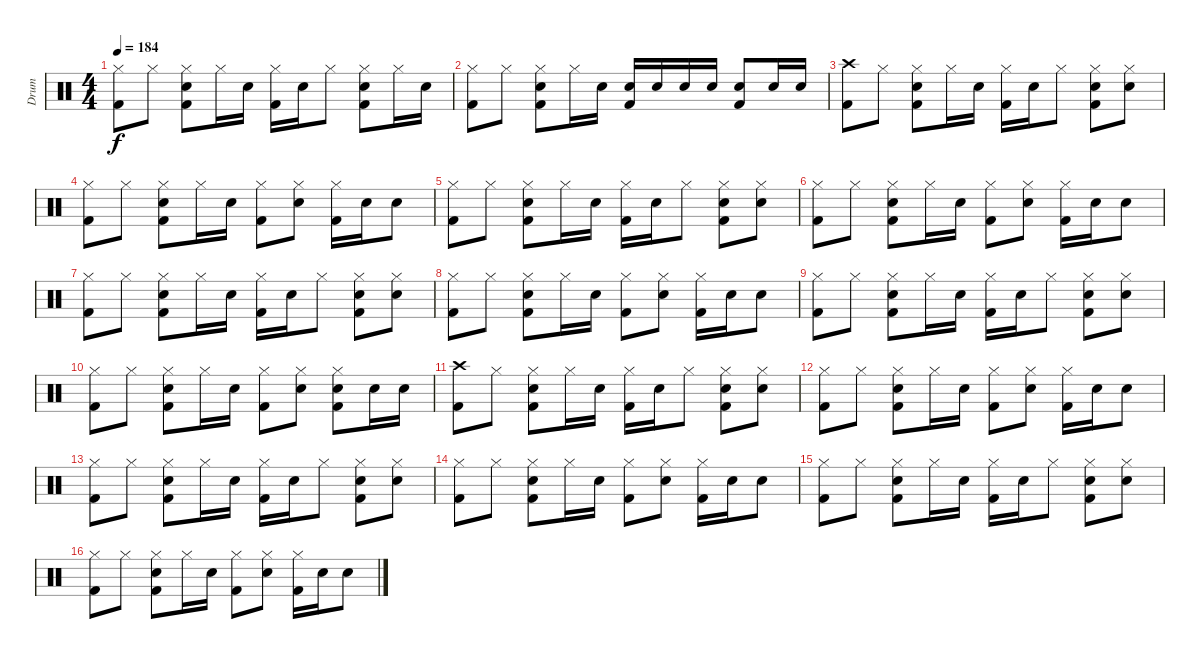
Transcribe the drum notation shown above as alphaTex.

\track ("Drum" "Drum") {instrument percussion}
\staff {score}
\articulation defaults
\ts (4 4)
\tempo 184
\clef neutral
\ks c
("Hi-Hat (closed)" "Kick (hit) 2").8{dy f} "Hi-Hat (closed)".8 ("Hi-Hat (closed)" "Electric Snare (hit)" "Kick (hit) 2").8 "Hi-Hat (closed)".16 "Electric Snare (hit)".16 ("Hi-Hat (closed)" "Kick (hit) 2").16 "Electric Snare (hit)".16 "Hi-Hat (closed)".8 ("Hi-Hat (closed)" "Electric Snare (hit)" "Kick (hit) 2").8 "Hi-Hat (closed)".16 "Electric Snare (hit)".16 |
("Hi-Hat (closed)" "Kick (hit) 2").8 "Hi-Hat (closed)".8 ("Hi-Hat (closed)" "Electric Snare (hit)" "Kick (hit) 2").8 "Hi-Hat (closed)".16 "Electric Snare (hit)".16 ("Electric Snare (hit)" "Kick (hit) 2").16 "Electric Snare (hit)".16 "Electric Snare (hit)".16 "Electric Snare (hit)".16 ("Electric Snare (hit)" "Kick (hit) 2").8 "Electric Snare (hit)".16 "Electric Snare (hit)".16 |
("Crash high (hit)" "Kick (hit) 2").8 "Hi-Hat (closed)".8 ("Hi-Hat (closed)" "Electric Snare (hit)" "Kick (hit) 2").8 "Hi-Hat (closed)".16 "Electric Snare (hit)".16 ("Hi-Hat (closed)" "Kick (hit) 2").16 "Electric Snare (hit)".16 "Hi-Hat (closed)".8 ("Hi-Hat (closed)" "Electric Snare (hit)" "Kick (hit) 2").8 ("Hi-Hat (closed)" "Electric Snare (hit)").8 |
("Hi-Hat (closed)" "Kick (hit) 2").8 "Hi-Hat (closed)".8 ("Hi-Hat (closed)" "Electric Snare (hit)" "Kick (hit) 2").8 "Hi-Hat (closed)".16 "Electric Snare (hit)".16 ("Hi-Hat (closed)" "Kick (hit) 2").8 ("Hi-Hat (closed)" "Electric Snare (hit)").8 ("Hi-Hat (closed)" "Kick (hit) 2").16 "Electric Snare (hit)".16 "Electric Snare (hit)".8 |
("Hi-Hat (closed)" "Kick (hit) 2").8 "Hi-Hat (closed)".8 ("Hi-Hat (closed)" "Electric Snare (hit)" "Kick (hit) 2").8 "Hi-Hat (closed)".16 "Electric Snare (hit)".16 ("Hi-Hat (closed)" "Kick (hit) 2").16 "Electric Snare (hit)".16 "Hi-Hat (closed)".8 ("Hi-Hat (closed)" "Electric Snare (hit)" "Kick (hit) 2").8 ("Hi-Hat (closed)" "Electric Snare (hit)").8 |
("Hi-Hat (closed)" "Kick (hit) 2").8 "Hi-Hat (closed)".8 ("Hi-Hat (closed)" "Electric Snare (hit)" "Kick (hit) 2").8 "Hi-Hat (closed)".16 "Electric Snare (hit)".16 ("Hi-Hat (closed)" "Kick (hit) 2").8 ("Hi-Hat (closed)" "Electric Snare (hit)").8 ("Hi-Hat (closed)" "Kick (hit) 2").16 "Electric Snare (hit)".16 "Electric Snare (hit)".8 |
("Hi-Hat (closed)" "Kick (hit) 2").8 "Hi-Hat (closed)".8 ("Hi-Hat (closed)" "Electric Snare (hit)" "Kick (hit) 2").8 "Hi-Hat (closed)".16 "Electric Snare (hit)".16 ("Hi-Hat (closed)" "Kick (hit) 2").16 "Electric Snare (hit)".16 "Hi-Hat (closed)".8 ("Hi-Hat (closed)" "Electric Snare (hit)" "Kick (hit) 2").8 ("Hi-Hat (closed)" "Electric Snare (hit)").8 |
("Hi-Hat (closed)" "Kick (hit) 2").8 "Hi-Hat (closed)".8 ("Hi-Hat (closed)" "Electric Snare (hit)" "Kick (hit) 2").8 "Hi-Hat (closed)".16 "Electric Snare (hit)".16 ("Hi-Hat (closed)" "Kick (hit) 2").8 ("Hi-Hat (closed)" "Electric Snare (hit)").8 ("Hi-Hat (closed)" "Kick (hit) 2").16 "Electric Snare (hit)".16 "Electric Snare (hit)".8 |
("Hi-Hat (closed)" "Kick (hit) 2").8 "Hi-Hat (closed)".8 ("Hi-Hat (closed)" "Electric Snare (hit)" "Kick (hit) 2").8 "Hi-Hat (closed)".16 "Electric Snare (hit)".16 ("Hi-Hat (closed)" "Kick (hit) 2").16 "Electric Snare (hit)".16 "Hi-Hat (closed)".8 ("Hi-Hat (closed)" "Electric Snare (hit)" "Kick (hit) 2").8 ("Hi-Hat (closed)" "Electric Snare (hit)").8 |
("Hi-Hat (closed)" "Kick (hit) 2").8 "Hi-Hat (closed)".8 ("Hi-Hat (closed)" "Electric Snare (hit)" "Kick (hit) 2").8 "Hi-Hat (closed)".16 "Electric Snare (hit)".16 ("Hi-Hat (closed)" "Kick (hit) 2").8 ("Hi-Hat (closed)" "Electric Snare (hit)").8 ("Hi-Hat (closed)" "Electric Snare (hit)" "Kick (hit) 2").8 "Electric Snare (hit)".16 "Electric Snare (hit)".16 |
("Crash high (hit)" "Kick (hit) 2").8 "Hi-Hat (closed)".8 ("Hi-Hat (closed)" "Electric Snare (hit)" "Kick (hit) 2").8 "Hi-Hat (closed)".16 "Electric Snare (hit)".16 ("Hi-Hat (closed)" "Kick (hit) 2").16 "Electric Snare (hit)".16 "Hi-Hat (closed)".8 ("Hi-Hat (closed)" "Electric Snare (hit)" "Kick (hit) 2").8 ("Hi-Hat (closed)" "Electric Snare (hit)").8 |
("Hi-Hat (closed)" "Kick (hit) 2").8 "Hi-Hat (closed)".8 ("Hi-Hat (closed)" "Electric Snare (hit)" "Kick (hit) 2").8 "Hi-Hat (closed)".16 "Electric Snare (hit)".16 ("Hi-Hat (closed)" "Kick (hit) 2").8 ("Hi-Hat (closed)" "Electric Snare (hit)").8 ("Hi-Hat (closed)" "Kick (hit) 2").16 "Electric Snare (hit)".16 "Electric Snare (hit)".8 |
("Hi-Hat (closed)" "Kick (hit) 2").8 "Hi-Hat (closed)".8 ("Hi-Hat (closed)" "Electric Snare (hit)" "Kick (hit) 2").8 "Hi-Hat (closed)".16 "Electric Snare (hit)".16 ("Hi-Hat (closed)" "Kick (hit) 2").16 "Electric Snare (hit)".16 "Hi-Hat (closed)".8 ("Hi-Hat (closed)" "Electric Snare (hit)" "Kick (hit) 2").8 ("Hi-Hat (closed)" "Electric Snare (hit)").8 |
("Hi-Hat (closed)" "Kick (hit) 2").8 "Hi-Hat (closed)".8 ("Hi-Hat (closed)" "Electric Snare (hit)" "Kick (hit) 2").8 "Hi-Hat (closed)".16 "Electric Snare (hit)".16 ("Hi-Hat (closed)" "Kick (hit) 2").8 ("Hi-Hat (closed)" "Electric Snare (hit)").8 ("Hi-Hat (closed)" "Kick (hit) 2").16 "Electric Snare (hit)".16 "Electric Snare (hit)".8 |
("Hi-Hat (closed)" "Kick (hit) 2").8 "Hi-Hat (closed)".8 ("Hi-Hat (closed)" "Electric Snare (hit)" "Kick (hit) 2").8 "Hi-Hat (closed)".16 "Electric Snare (hit)".16 ("Hi-Hat (closed)" "Kick (hit) 2").16 "Electric Snare (hit)".16 "Hi-Hat (closed)".8 ("Hi-Hat (closed)" "Electric Snare (hit)" "Kick (hit) 2").8 ("Hi-Hat (closed)" "Electric Snare (hit)").8 |
("Hi-Hat (closed)" "Kick (hit) 2").8 "Hi-Hat (closed)".8 ("Hi-Hat (closed)" "Electric Snare (hit)" "Kick (hit) 2").8 "Hi-Hat (closed)".16 "Electric Snare (hit)".16 ("Hi-Hat (closed)" "Kick (hit) 2").8 ("Hi-Hat (closed)" "Electric Snare (hit)").8 ("Hi-Hat (closed)" "Kick (hit) 2").16 "Electric Snare (hit)".16 "Electric Snare (hit)".8
